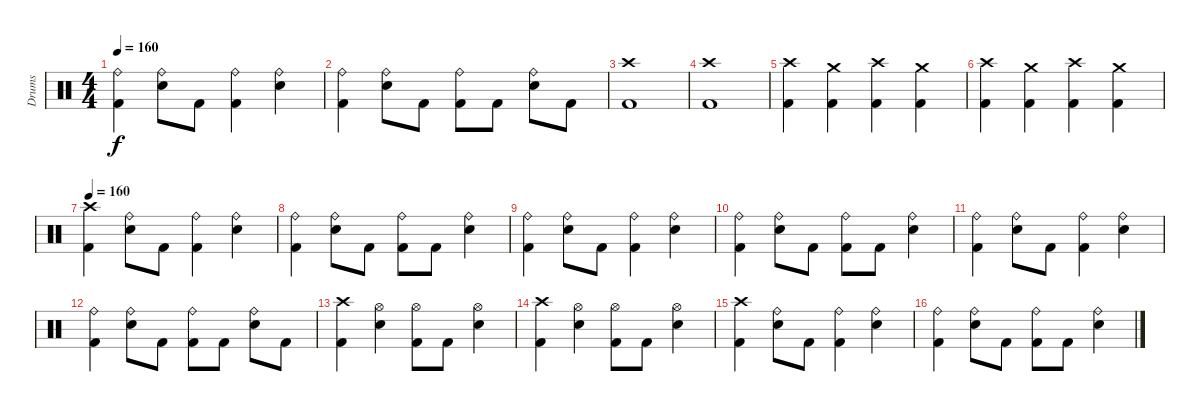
\track ("Drums" "Drums") {instrument percussion}
\staff {score}
\articulation defaults
\ts (4 4)
\tempo 160
\clef neutral
\ks c
("Ride (bell)" "Kick (hit) 2").4{dy f} ("Ride (bell)" "Electric Snare (hit)").8 "Kick (hit) 2".8 ("Ride (bell)" "Kick (hit) 2").4 ("Ride (bell)" "Electric Snare (hit)").4 |
("Ride (bell)" "Kick (hit) 2").4 ("Ride (bell)" "Electric Snare (hit)").8 "Kick (hit) 2".8 ("Ride (bell)" "Kick (hit) 2").8 "Kick (hit) 2".8 ("Ride (bell)" "Electric Snare (hit)").8 "Kick (hit) 2".8 |
("Crash high (hit)" "Kick (hit) 2").1 |
("Crash high (hit)" "Kick (hit) 2").1 |
("Crash high (hit)" "Kick (hit) 2").4 ("Crash medium (hit)" "Kick (hit) 2").4 ("Crash high (hit)" "Kick (hit) 2").4 ("Crash medium (hit)" "Kick (hit) 2").4 |
("Crash high (hit)" "Kick (hit) 2").4 ("Crash medium (hit)" "Kick (hit) 2").4 ("Crash high (hit)" "Kick (hit) 2").4 ("Crash medium (hit)" "Kick (hit) 2").4 |
\tempo 160
("Crash high (hit)" "Kick (hit) 2").4 ("Ride (bell)" "Electric Snare (hit)").8 "Kick (hit) 2".8 ("Ride (bell)" "Kick (hit) 2").4 ("Ride (bell)" "Electric Snare (hit)").4 |
("Ride (bell)" "Kick (hit) 2").4 ("Ride (bell)" "Electric Snare (hit)").8 "Kick (hit) 2".8 ("Ride (bell)" "Kick (hit) 2").8 "Kick (hit) 2".8 ("Ride (bell)" "Electric Snare (hit)").4 |
("Ride (bell)" "Kick (hit) 2").4 ("Ride (bell)" "Electric Snare (hit)").8 "Kick (hit) 2".8 ("Ride (bell)" "Kick (hit) 2").4 ("Ride (bell)" "Electric Snare (hit)").4 |
("Ride (bell)" "Kick (hit) 2").4 ("Ride (bell)" "Electric Snare (hit)").8 "Kick (hit) 2".8 ("Ride (bell)" "Kick (hit) 2").8 "Kick (hit) 2".8 ("Ride (bell)" "Electric Snare (hit)").4 |
("Ride (bell)" "Kick (hit) 2").4 ("Ride (bell)" "Electric Snare (hit)").8 "Kick (hit) 2".8 ("Ride (bell)" "Kick (hit) 2").4 ("Ride (bell)" "Electric Snare (hit)").4 |
("Ride (bell)" "Kick (hit) 2").4 ("Ride (bell)" "Electric Snare (hit)").8 "Kick (hit) 2".8 ("Ride (bell)" "Kick (hit) 2").8 "Kick (hit) 2".8 ("Ride (bell)" "Electric Snare (hit)").8 "Kick (hit) 2".8 |
("Crash high (hit)" "Kick (hit) 2").4 ("Hi-Hat (open)" "Electric Snare (hit)").4 ("Hi-Hat (open)" "Kick (hit) 2").8 "Kick (hit) 2".8 ("Hi-Hat (open)" "Electric Snare (hit)").4 |
("Crash high (hit)" "Kick (hit) 2").4 ("Hi-Hat (open)" "Electric Snare (hit)").4 ("Hi-Hat (open)" "Kick (hit) 2").8 "Kick (hit) 2".8 ("Hi-Hat (open)" "Electric Snare (hit)").4 |
("Crash high (hit)" "Kick (hit) 2").4 ("Ride (bell)" "Electric Snare (hit)").8 "Kick (hit) 2".8 ("Ride (bell)" "Kick (hit) 2").4 ("Ride (bell)" "Electric Snare (hit)").4 |
("Ride (bell)" "Kick (hit) 2").4 ("Ride (bell)" "Electric Snare (hit)").8 "Kick (hit) 2".8 ("Ride (bell)" "Kick (hit) 2").8 "Kick (hit) 2".8 ("Ride (bell)" "Electric Snare (hit)").4
